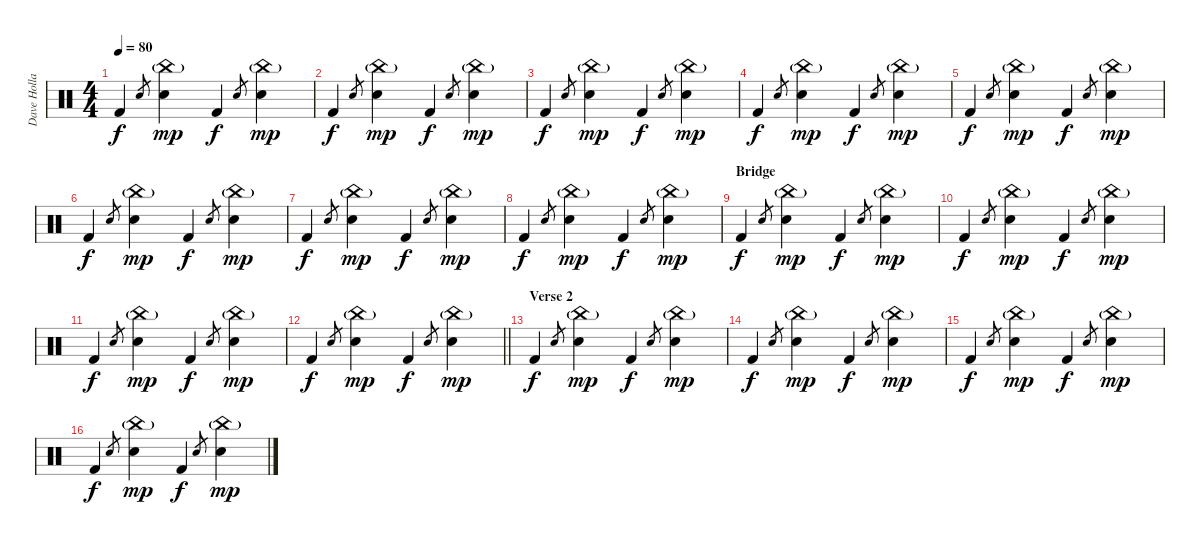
\track ("Dave Holland" "Dave Holla") {instrument percussion}
\staff {score}
\articulation defaults
\ts (4 4)
\tempo 80
\clef neutral
\ks c "Kick (hit) 2".4{dy f} "Snare (hit) 2".8{gr}
("Snare (hit) 2" "China (hit)"{g}).4{dy mp} "Kick (hit) 2".4{dy f} "Snare (hit) 2".8{gr} ("Snare (hit) 2" "China (hit)"{g}).4{dy mp} |
"Kick (hit) 2".4{dy f} "Snare (hit) 2".8{gr} ("Snare (hit) 2" "China (hit)"{g}).4{dy mp} "Kick (hit) 2".4{dy f} "Snare (hit) 2".8{gr} ("Snare (hit) 2" "China (hit)"{g}).4{dy mp} |
"Kick (hit) 2".4{dy f} "Snare (hit) 2".8{gr} ("Snare (hit) 2" "China (hit)"{g}).4{dy mp} "Kick (hit) 2".4{dy f} "Snare (hit) 2".8{gr} ("Snare (hit) 2" "China (hit)"{g}).4{dy mp} |
"Kick (hit) 2".4{dy f} "Snare (hit) 2".8{gr} ("Snare (hit) 2" "China (hit)"{g}).4{dy mp} "Kick (hit) 2".4{dy f} "Snare (hit) 2".8{gr} ("Snare (hit) 2" "China (hit)"{g}).4{dy mp} |
"Kick (hit) 2".4{dy f} "Snare (hit) 2".8{gr} ("Snare (hit) 2" "China (hit)"{g}).4{dy mp} "Kick (hit) 2".4{dy f} "Snare (hit) 2".8{gr} ("Snare (hit) 2" "China (hit)"{g}).4{dy mp} |
"Kick (hit) 2".4{dy f} "Snare (hit) 2".8{gr} ("Snare (hit) 2" "China (hit)"{g}).4{dy mp} "Kick (hit) 2".4{dy f} "Snare (hit) 2".8{gr} ("Snare (hit) 2" "China (hit)"{g}).4{dy mp} |
"Kick (hit) 2".4{dy f} "Snare (hit) 2".8{gr} ("Snare (hit) 2" "China (hit)"{g}).4{dy mp} "Kick (hit) 2".4{dy f} "Snare (hit) 2".8{gr} ("Snare (hit) 2" "China (hit)"{g}).4{dy mp} |
"Kick (hit) 2".4{dy f} "Snare (hit) 2".8{gr} ("Snare (hit) 2" "China (hit)"{g}).4{dy mp} "Kick (hit) 2".4{dy f} "Snare (hit) 2".8{gr} ("Snare (hit) 2" "China (hit)"{g}).4{dy mp} |
\section ("" "Bridge")
"Kick (hit) 2".4{dy f} "Snare (hit) 2".8{gr} ("Snare (hit) 2" "China (hit)"{g}).4{dy mp} "Kick (hit) 2".4{dy f} "Snare (hit) 2".8{gr} ("Snare (hit) 2" "China (hit)"{g}).4{dy mp} |
"Kick (hit) 2".4{dy f} "Snare (hit) 2".8{gr} ("Snare (hit) 2" "China (hit)"{g}).4{dy mp} "Kick (hit) 2".4{dy f} "Snare (hit) 2".8{gr} ("Snare (hit) 2" "China (hit)"{g}).4{dy mp} |
"Kick (hit) 2".4{dy f} "Snare (hit) 2".8{gr} ("Snare (hit) 2" "China (hit)"{g}).4{dy mp} "Kick (hit) 2".4{dy f} "Snare (hit) 2".8{gr} ("Snare (hit) 2" "China (hit)"{g}).4{dy mp} |
\barLineRight lightlight "Kick (hit) 2".4{dy f} "Snare (hit) 2".8{gr}
("Snare (hit) 2" "China (hit)"{g}).4{dy mp} "Kick (hit) 2".4{dy f} "Snare (hit) 2".8{gr} ("Snare (hit) 2" "China (hit)"{g}).4{dy mp} |
\section ("" "Verse 2")
"Kick (hit) 2".4{dy f} "Snare (hit) 2".8{gr} ("Snare (hit) 2" "China (hit)"{g}).4{dy mp} "Kick (hit) 2".4{dy f} "Snare (hit) 2".8{gr} ("Snare (hit) 2" "China (hit)"{g}).4{dy mp} |
"Kick (hit) 2".4{dy f} "Snare (hit) 2".8{gr} ("Snare (hit) 2" "China (hit)"{g}).4{dy mp} "Kick (hit) 2".4{dy f} "Snare (hit) 2".8{gr} ("Snare (hit) 2" "China (hit)"{g}).4{dy mp} |
"Kick (hit) 2".4{dy f} "Snare (hit) 2".8{gr} ("Snare (hit) 2" "China (hit)"{g}).4{dy mp} "Kick (hit) 2".4{dy f} "Snare (hit) 2".8{gr} ("Snare (hit) 2" "China (hit)"{g}).4{dy mp} |
"Kick (hit) 2".4{dy f} "Snare (hit) 2".8{gr} ("Snare (hit) 2" "China (hit)"{g}).4{dy mp} "Kick (hit) 2".4{dy f} "Snare (hit) 2".8{gr} ("Snare (hit) 2" "China (hit)"{g}).4{dy mp}
